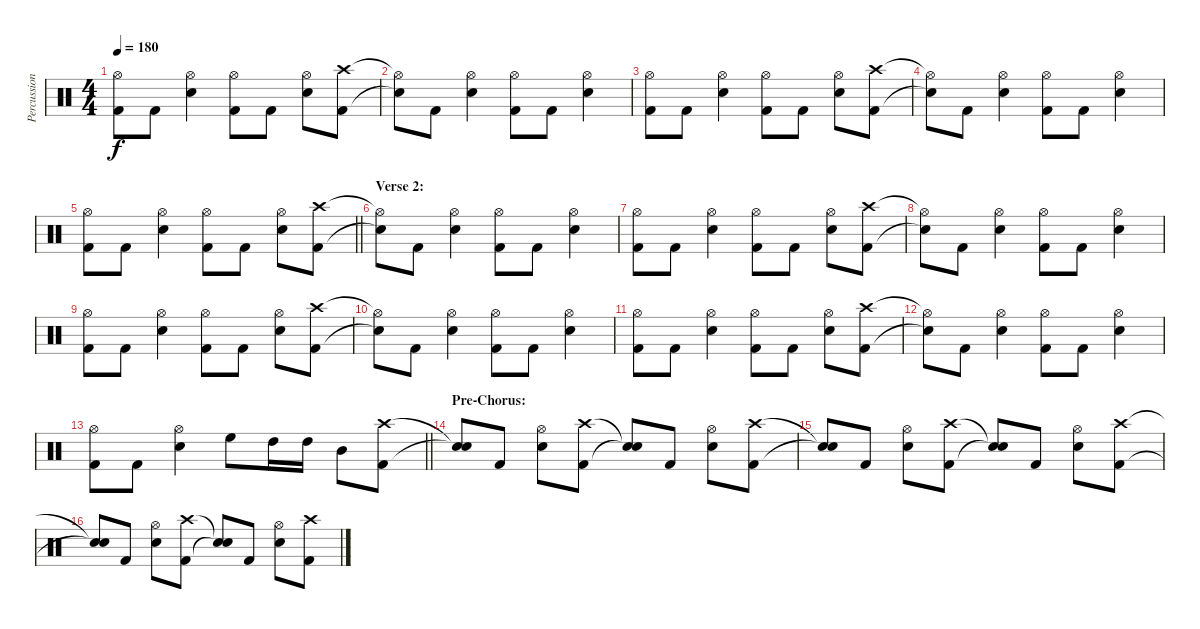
\track ("Percussion" "Percussion") {instrument percussion}
\staff {score}
\articulation defaults
\ts (4 4)
\tempo 180
\clef neutral
\ks c
("Hi-Hat (open)" "Kick (hit) 2").8{dy f} "Kick (hit) 2".8 ("Hi-Hat (open)" "Electric Snare (hit)").4 ("Hi-Hat (open)" "Kick (hit) 2").8 "Kick (hit) 2".8 ("Hi-Hat (open)" "Electric Snare (hit)").8 ("Crash high (hit)" "Kick (hit) 2").8 |
("Hi-Hat (open)"{t} "Snare (hit)"{t}).8 "Kick (hit) 2".8 ("Hi-Hat (open)" "Electric Snare (hit)").4 ("Hi-Hat (open)" "Kick (hit) 2").8 "Kick (hit) 2".8 ("Hi-Hat (open)" "Electric Snare (hit)").4 |
("Hi-Hat (open)" "Kick (hit) 2").8 "Kick (hit) 2".8 ("Hi-Hat (open)" "Electric Snare (hit)").4 ("Hi-Hat (open)" "Kick (hit) 2").8 "Kick (hit) 2".8 ("Hi-Hat (open)" "Electric Snare (hit)").8 ("Crash high (hit)" "Kick (hit) 2").8 |
("Hi-Hat (open)"{t} "Snare (hit)"{t}).8 "Kick (hit) 2".8 ("Hi-Hat (open)" "Electric Snare (hit)").4 ("Hi-Hat (open)" "Kick (hit) 2").8 "Kick (hit) 2".8 ("Hi-Hat (open)" "Electric Snare (hit)").4 |
\barLineRight lightlight
("Hi-Hat (open)" "Kick (hit) 2").8 "Kick (hit) 2".8 ("Hi-Hat (open)" "Electric Snare (hit)").4 ("Hi-Hat (open)" "Kick (hit) 2").8 "Kick (hit) 2".8 ("Hi-Hat (open)" "Electric Snare (hit)").8 ("Crash high (hit)" "Kick (hit) 2").8 |
\section ("" "Verse 2:")
("Hi-Hat (open)"{t} "Snare (hit)"{t}).8 "Kick (hit) 2".8 ("Hi-Hat (open)" "Electric Snare (hit)").4 ("Hi-Hat (open)" "Kick (hit) 2").8 "Kick (hit) 2".8 ("Hi-Hat (open)" "Electric Snare (hit)").4 |
("Hi-Hat (open)" "Kick (hit) 2").8 "Kick (hit) 2".8 ("Hi-Hat (open)" "Electric Snare (hit)").4 ("Hi-Hat (open)" "Kick (hit) 2").8 "Kick (hit) 2".8 ("Hi-Hat (open)" "Electric Snare (hit)").8 ("Crash high (hit)" "Kick (hit) 2").8 |
("Hi-Hat (open)"{t} "Snare (hit)"{t}).8 "Kick (hit) 2".8 ("Hi-Hat (open)" "Electric Snare (hit)").4 ("Hi-Hat (open)" "Kick (hit) 2").8 "Kick (hit) 2".8 ("Hi-Hat (open)" "Electric Snare (hit)").4 |
("Hi-Hat (open)" "Kick (hit) 2").8 "Kick (hit) 2".8 ("Hi-Hat (open)" "Electric Snare (hit)").4 ("Hi-Hat (open)" "Kick (hit) 2").8 "Kick (hit) 2".8 ("Hi-Hat (open)" "Electric Snare (hit)").8 ("Crash high (hit)" "Kick (hit) 2").8 |
("Hi-Hat (open)"{t} "Snare (hit)"{t}).8 "Kick (hit) 2".8 ("Hi-Hat (open)" "Electric Snare (hit)").4 ("Hi-Hat (open)" "Kick (hit) 2").8 "Kick (hit) 2".8 ("Hi-Hat (open)" "Electric Snare (hit)").4 |
("Hi-Hat (open)" "Kick (hit) 2").8 "Kick (hit) 2".8 ("Hi-Hat (open)" "Electric Snare (hit)").4 ("Hi-Hat (open)" "Kick (hit) 2").8 "Kick (hit) 2".8 ("Hi-Hat (open)" "Electric Snare (hit)").8 ("Crash high (hit)" "Kick (hit) 2").8 |
("Hi-Hat (open)"{t} "Snare (hit)"{t}).8 "Kick (hit) 2".8 ("Hi-Hat (open)" "Electric Snare (hit)").4 ("Hi-Hat (open)" "Kick (hit) 2").8 "Kick (hit) 2".8 ("Hi-Hat (open)" "Electric Snare (hit)").4 |
\barLineRight lightlight
("Hi-Hat (open)" "Kick (hit) 2").8 "Kick (hit) 2".8 ("Hi-Hat (open)" "Electric Snare (hit)").4 "High Floor Tom (hit)".8 "High Tom (hit)".16 "High Tom (hit)".16 "Mid Tom (hit)".8 ("Crash high (hit)" "Kick (hit) 2").8 |
\section ("" "Pre-Chorus:")
("Snare (hit)"{t} "Snare (hit)"{t}).8 "Kick (hit) 2".8 ("Hi-Hat (open)" "Electric Snare (hit)").8 ("Crash high (hit)" "Kick (hit) 2").8 ("Snare (hit)"{t} "Snare (hit)"{t}).8 "Kick (hit) 2".8 ("Hi-Hat (open)" "Electric Snare (hit)").8 ("Crash high (hit)" "Kick (hit) 2").8 |
("Snare (hit)"{t} "Snare (hit)"{t}).8 "Kick (hit) 2".8 ("Hi-Hat (open)" "Electric Snare (hit)").8 ("Crash high (hit)" "Kick (hit) 2").8 ("Snare (hit)"{t} "Snare (hit)"{t}).8 "Kick (hit) 2".8 ("Hi-Hat (open)" "Electric Snare (hit)").8 ("Crash high (hit)" "Kick (hit) 2").8 |
("Snare (hit)"{t} "Snare (hit)"{t}).8 "Kick (hit) 2".8 ("Hi-Hat (open)" "Electric Snare (hit)").8 ("Crash high (hit)" "Kick (hit) 2").8 ("Snare (hit)"{t} "Snare (hit)"{t}).8 "Kick (hit) 2".8 ("Hi-Hat (open)" "Electric Snare (hit)").8 ("Crash high (hit)" "Kick (hit) 2").8
